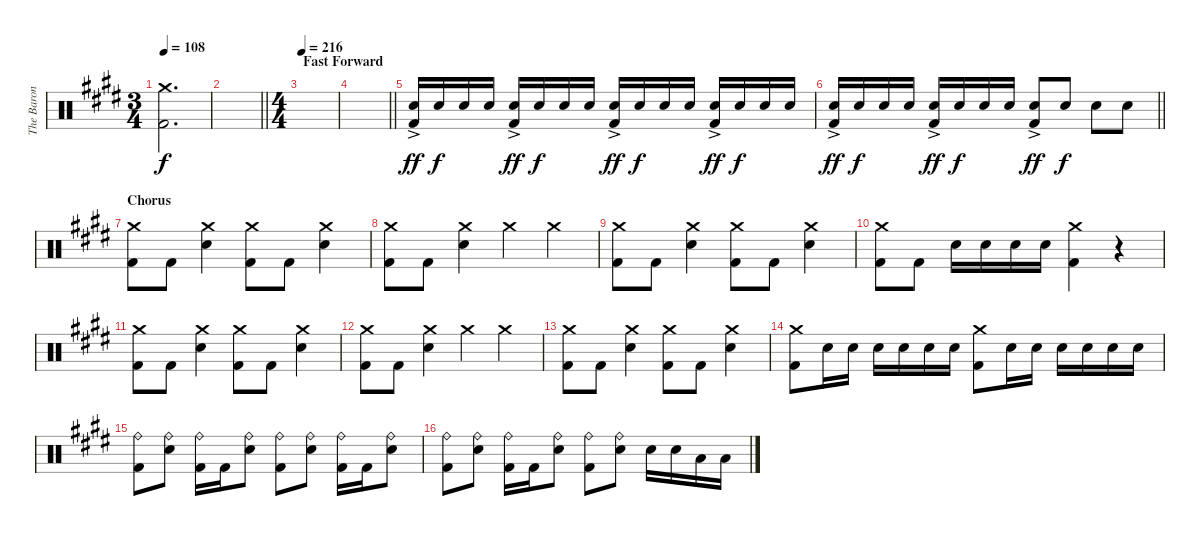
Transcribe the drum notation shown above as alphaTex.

\track ("The Baron Von Tito" "The Baron ") {instrument percussion}
\staff {score}
\articulation defaults
\ts (3 4)
\tempo 108
\clef neutral
\ks e
("Crash medium (hit)" "Kick (hit) 2").2{d dy f} |
\barLineRight lightlight
|
\ts (4 4)
\section ("" "Fast Forward")
\tempo 216
|
\barLineRight lightlight
|
("Electric Snare (hit)"{ac} "Kick (hit) 2").16{dy ff} "Electric Snare (hit)".16{dy f} "Electric Snare (hit)".16 "Electric Snare (hit)".16 ("Electric Snare (hit)"{ac} "Kick (hit) 2").16{dy ff} "Electric Snare (hit)".16{dy f} "Electric Snare (hit)".16 "Electric Snare (hit)".16 ("Electric Snare (hit)"{ac} "Kick (hit) 2").16{dy ff} "Electric Snare (hit)".16{dy f} "Electric Snare (hit)".16 "Electric Snare (hit)".16 ("Electric Snare (hit)"{ac} "Kick (hit) 2").16{dy ff} "Electric Snare (hit)".16{dy f} "Electric Snare (hit)".16 "Electric Snare (hit)".16 |
\barLineRight lightlight
("Electric Snare (hit)"{ac} "Kick (hit) 2").16{dy ff} "Electric Snare (hit)".16{dy f} "Electric Snare (hit)".16 "Electric Snare (hit)".16 ("Electric Snare (hit)"{ac} "Kick (hit) 2").16{dy ff} "Electric Snare (hit)".16{dy f} "Electric Snare (hit)".16 "Electric Snare (hit)".16 ("Electric Snare (hit)"{ac} "Kick (hit) 2").8{dy ff} "Electric Snare (hit)".8{dy f} "Electric Snare (hit)".8 "Electric Snare (hit)".8 |
\section ("" "Chorus")
("Crash medium (hit)" "Kick (hit) 2").8 "Kick (hit) 2".8 ("Crash medium (hit)" "Electric Snare (hit)").4 ("Crash medium (hit)" "Kick (hit) 2").8 "Kick (hit) 2".8 ("Crash medium (hit)" "Electric Snare (hit)").4 |
("Crash medium (hit)" "Kick (hit) 2").8 "Kick (hit) 2".8 ("Crash medium (hit)" "Electric Snare (hit)").4 "Crash medium (hit)".4 "Crash medium (hit)".4 |
("Crash medium (hit)" "Kick (hit) 2").8 "Kick (hit) 2".8 ("Crash medium (hit)" "Electric Snare (hit)").4 ("Crash medium (hit)" "Kick (hit) 2").8 "Kick (hit) 2".8 ("Crash medium (hit)" "Electric Snare (hit)").4 |
("Crash medium (hit)" "Kick (hit) 2").8 "Kick (hit) 2".8 "Electric Snare (hit)".16 "Electric Snare (hit)".16 "Electric Snare (hit)".16 "Electric Snare (hit)".16 ("Crash medium (hit)" "Kick (hit) 2").4 r.4 |
("Crash medium (hit)" "Kick (hit) 2").8 "Kick (hit) 2".8 ("Crash medium (hit)" "Electric Snare (hit)").4 ("Crash medium (hit)" "Kick (hit) 2").8 "Kick (hit) 2".8 ("Crash medium (hit)" "Electric Snare (hit)").4 |
("Crash medium (hit)" "Kick (hit) 2").8 "Kick (hit) 2".8 ("Crash medium (hit)" "Electric Snare (hit)").4 "Crash medium (hit)".4 "Crash medium (hit)".4 |
("Crash medium (hit)" "Kick (hit) 2").8 "Kick (hit) 2".8 ("Crash medium (hit)" "Electric Snare (hit)").4 ("Crash medium (hit)" "Kick (hit) 2").8 "Kick (hit) 2".8 ("Crash medium (hit)" "Electric Snare (hit)").4 |
("Crash medium (hit)" "Kick (hit) 2").8 "Electric Snare (hit)".16 "Electric Snare (hit)".16 "Electric Snare (hit)".16 "Electric Snare (hit)".16 "Electric Snare (hit)".16 "Electric Snare (hit)".16 ("Crash medium (hit)" "Kick (hit) 2").8 "Electric Snare (hit)".16 "Electric Snare (hit)".16 "Electric Snare (hit)".16 "Electric Snare (hit)".16 "Electric Snare (hit)".16 "Electric Snare (hit)".16 |
("Ride (bell)" "Kick (hit) 2").8 ("Ride (bell)" "Electric Snare (hit)").8 ("Ride (bell)" "Kick (hit) 2").16 "Kick (hit) 2".16 ("Ride (bell)" "Electric Snare (hit)").8 ("Ride (bell)" "Kick (hit) 2").8 ("Ride (bell)" "Electric Snare (hit)").8 ("Ride (bell)" "Kick (hit) 2").16 "Kick (hit) 2".16 ("Ride (bell)" "Electric Snare (hit)").8 |
("Ride (bell)" "Kick (hit) 2").8 ("Ride (bell)" "Electric Snare (hit)").8 ("Ride (bell)" "Kick (hit) 2").16 "Kick (hit) 2".16 ("Ride (bell)" "Electric Snare (hit)").8 ("Ride (bell)" "Kick (hit) 2").8 ("Ride (bell)" "Electric Snare (hit)").8 "Electric Snare (hit)".16 "Electric Snare (hit)".16 "Low Tom (hit)".16 "Low Tom (hit)".16
